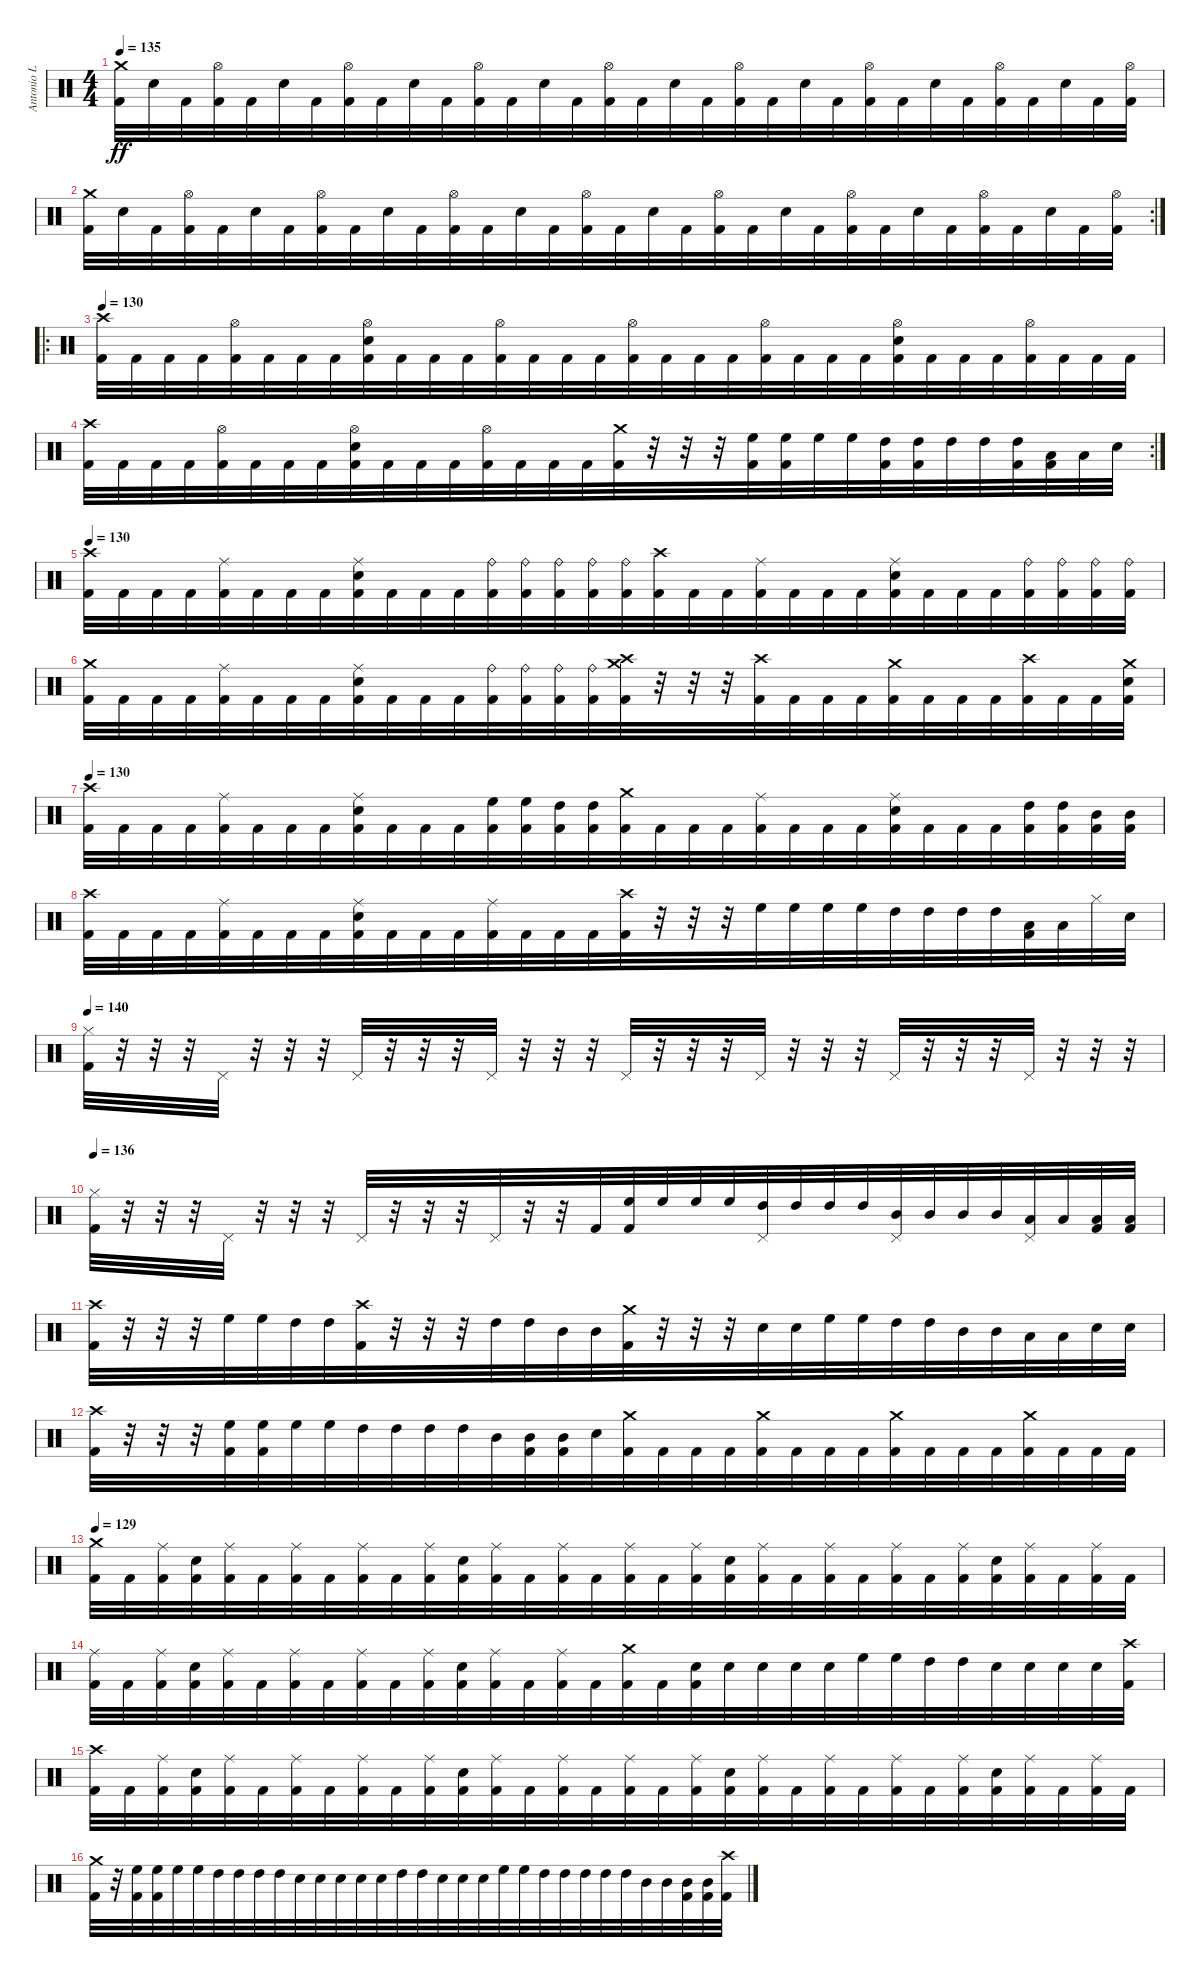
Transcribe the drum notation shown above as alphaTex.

\track ("Antonio L" "Antonio L") {instrument percussion}
\staff {score}
\articulation defaults
\ts (4 4)
\tempo 135
\clef neutral
\ks c
("Crash medium (hit)" "Kick (hit) 2").32{dy ff} "Electric Snare (hit)".32 "Kick (hit) 2".32 ("Hi-Hat (open)" "Kick (hit) 2").32 "Kick (hit) 2".32 "Electric Snare (hit)".32 "Kick (hit) 2".32 ("Hi-Hat (open)" "Kick (hit) 2").32{beam merge} "Kick (hit) 2".32 "Electric Snare (hit)".32 "Kick (hit) 2".32 ("Hi-Hat (open)" "Kick (hit) 2").32 "Kick (hit) 2".32 "Electric Snare (hit)".32 "Kick (hit) 2".32 ("Hi-Hat (open)" "Kick (hit) 2").32{beam merge} "Kick (hit) 2".32 "Electric Snare (hit)".32 "Kick (hit) 2".32 ("Hi-Hat (open)" "Kick (hit) 2").32 "Kick (hit) 2".32 "Electric Snare (hit)".32 "Kick (hit) 2".32 ("Hi-Hat (open)" "Kick (hit) 2").32{beam merge} "Kick (hit) 2".32 "Electric Snare (hit)".32 "Kick (hit) 2".32 ("Hi-Hat (open)" "Kick (hit) 2").32 "Kick (hit) 2".32 "Electric Snare (hit)".32 "Kick (hit) 2".32 ("Hi-Hat (open)" "Kick (hit) 2").32 |
\rc 2
("Crash medium (hit)" "Kick (hit) 2").32 "Electric Snare (hit)".32 "Kick (hit) 2".32 ("Hi-Hat (open)" "Kick (hit) 2").32 "Kick (hit) 2".32 "Electric Snare (hit)".32 "Kick (hit) 2".32 ("Hi-Hat (open)" "Kick (hit) 2").32{beam merge} "Kick (hit) 2".32 "Electric Snare (hit)".32 "Kick (hit) 2".32 ("Hi-Hat (open)" "Kick (hit) 2").32 "Kick (hit) 2".32 "Electric Snare (hit)".32 "Kick (hit) 2".32 ("Hi-Hat (open)" "Kick (hit) 2").32{beam merge} "Kick (hit) 2".32 "Electric Snare (hit)".32 "Kick (hit) 2".32 ("Hi-Hat (open)" "Kick (hit) 2").32 "Kick (hit) 2".32 "Electric Snare (hit)".32 "Kick (hit) 2".32 ("Hi-Hat (open)" "Kick (hit) 2").32{beam merge} "Kick (hit) 2".32 "Electric Snare (hit)".32 "Kick (hit) 2".32 ("Hi-Hat (open)" "Kick (hit) 2").32 "Kick (hit) 2".32 "Electric Snare (hit)".32 "Kick (hit) 2".32 ("Hi-Hat (open)" "Kick (hit) 2").32 |
\ro
\tempo 130
("Crash high (hit)" "Kick (hit) 2").32 "Kick (hit) 2".32 "Kick (hit) 2".32 "Kick (hit) 2".32 ("Hi-Hat (open)" "Kick (hit) 2").32 "Kick (hit) 2".32 "Kick (hit) 2".32 "Kick (hit) 2".32{beam merge} ("Hi-Hat (open)" "Electric Snare (hit)" "Kick (hit) 2").32 "Kick (hit) 2".32 "Kick (hit) 2".32 "Kick (hit) 2".32 ("Hi-Hat (open)" "Kick (hit) 2").32 "Kick (hit) 2".32 "Kick (hit) 2".32 "Kick (hit) 2".32{beam merge} ("Hi-Hat (open)" "Kick (hit) 2").32 "Kick (hit) 2".32 "Kick (hit) 2".32 "Kick (hit) 2".32 ("Hi-Hat (open)" "Kick (hit) 2").32 "Kick (hit) 2".32 "Kick (hit) 2".32 "Kick (hit) 2".32{beam merge} ("Hi-Hat (open)" "Electric Snare (hit)" "Kick (hit) 2").32 "Kick (hit) 2".32 "Kick (hit) 2".32 "Kick (hit) 2".32 ("Hi-Hat (open)" "Kick (hit) 2").32 "Kick (hit) 2".32 "Kick (hit) 2".32 "Kick (hit) 2".32 |
\rc 2
("Crash high (hit)" "Kick (hit) 2").32 "Kick (hit) 2".32 "Kick (hit) 2".32 "Kick (hit) 2".32 ("Hi-Hat (open)" "Kick (hit) 2").32 "Kick (hit) 2".32 "Kick (hit) 2".32 "Kick (hit) 2".32{beam merge} ("Hi-Hat (open)" "Electric Snare (hit)" "Kick (hit) 2").32 "Kick (hit) 2".32 "Kick (hit) 2".32 "Kick (hit) 2".32 ("Hi-Hat (open)" "Kick (hit) 2").32 "Kick (hit) 2".32 "Kick (hit) 2".32 "Kick (hit) 2".32{beam merge} ("Crash medium (hit)" "Kick (hit) 2").32 r.32 r.32 r.32 ("High Floor Tom (hit)" "Kick (hit) 2").32 ("High Floor Tom (hit)" "Kick (hit) 2").32 "High Floor Tom (hit)".32 "High Floor Tom (hit)".32{beam merge} ("High Tom (hit)" "Kick (hit) 2").32 ("High Tom (hit)" "Kick (hit) 2").32 "High Tom (hit)".32 "High Tom (hit)".32 ("High Tom (hit)" "Kick (hit) 2").32 ("Low Tom (hit)" "Kick (hit) 2").32 "Low Tom (hit)".32 "Electric Snare (hit)".32 |
\tempo 130
("Crash high (hit)" "Kick (hit) 2").32 "Kick (hit) 2".32 "Kick (hit) 2".32 "Kick (hit) 2".32 ("Ride (middle)" "Kick (hit) 2").32 "Kick (hit) 2".32 "Kick (hit) 2".32 "Kick (hit) 2".32{beam merge} ("Ride (middle)" "Electric Snare (hit)" "Kick (hit) 2").32 "Kick (hit) 2".32 "Kick (hit) 2".32 "Kick (hit) 2".32 ("Ride (bell)" "Kick (hit) 2").32 ("Ride (bell)" "Kick (hit) 2").32 ("Ride (bell)" "Kick (hit) 2").32 ("Ride (bell)" "Kick (hit) 2").32{beam merge} ("Ride (bell)" "Kick (hit) 2").32 ("Crash high (hit)" "Kick (hit) 2").32 "Kick (hit) 2".32 "Kick (hit) 2".32 ("Ride (middle)" "Kick (hit) 2").32 "Kick (hit) 2".32 "Kick (hit) 2".32 "Kick (hit) 2".32{beam merge} ("Ride (middle)" "Electric Snare (hit)" "Kick (hit) 2").32 "Kick (hit) 2".32 "Kick (hit) 2".32 "Kick (hit) 2".32 ("Ride (bell)" "Kick (hit) 2").32 ("Ride (bell)" "Kick (hit) 2").32 ("Ride (bell)" "Kick (hit) 2").32 ("Ride (bell)" "Kick (hit) 2").32 |
("Crash medium (hit)" "Kick (hit) 2").32 "Kick (hit) 2".32 "Kick (hit) 2".32 "Kick (hit) 2".32 ("Ride (middle)" "Kick (hit) 2").32 "Kick (hit) 2".32 "Kick (hit) 2".32 "Kick (hit) 2".32{beam merge} ("Ride (middle)" "Electric Snare (hit)" "Kick (hit) 2").32 "Kick (hit) 2".32 "Kick (hit) 2".32 "Kick (hit) 2".32 ("Ride (bell)" "Kick (hit) 2").32 ("Ride (bell)" "Kick (hit) 2").32 ("Ride (bell)" "Kick (hit) 2").32 ("Ride (bell)" "Kick (hit) 2").32{beam merge} ("Crash medium (hit)" "Crash high (hit)" "Kick (hit) 2").32 r.32 r.32 r.32 ("Crash high (hit)" "Kick (hit) 2").32 "Kick (hit) 2".32 "Kick (hit) 2".32 "Kick (hit) 2".32{beam merge} ("Crash medium (hit)" "Kick (hit) 2").32 "Kick (hit) 2".32 "Kick (hit) 2".32 "Kick (hit) 2".32 ("Crash high (hit)" "Kick (hit) 2").32 "Kick (hit) 2".32 "Kick (hit) 2".32 ("Crash medium (hit)" "Electric Snare (hit)" "Kick (hit) 2").32 |
\tempo 130
("Crash high (hit)" "Kick (hit) 2").32 "Kick (hit) 2".32 "Kick (hit) 2".32 "Kick (hit) 2".32 ("Ride (middle)" "Kick (hit) 2").32 "Kick (hit) 2".32 "Kick (hit) 2".32 "Kick (hit) 2".32{beam merge} ("Ride (middle)" "Electric Snare (hit)" "Kick (hit) 2").32 "Kick (hit) 2".32 "Kick (hit) 2".32 "Kick (hit) 2".32 ("High Floor Tom (hit)" "Kick (hit) 2").32 ("High Floor Tom (hit)" "Kick (hit) 2").32 ("High Tom (hit)" "Kick (hit) 2").32 ("High Tom (hit)" "Kick (hit) 2").32{beam merge} ("Crash medium (hit)" "Kick (hit) 2").32 "Kick (hit) 2".32 "Kick (hit) 2".32 "Kick (hit) 2".32 ("Ride (middle)" "Kick (hit) 2").32 "Kick (hit) 2".32 "Kick (hit) 2".32 "Kick (hit) 2".32{beam merge} ("Ride (middle)" "Electric Snare (hit)" "Kick (hit) 2").32 "Kick (hit) 2".32 "Kick (hit) 2".32 "Kick (hit) 2".32 ("High Tom (hit)" "Kick (hit) 2").32 ("High Tom (hit)" "Kick (hit) 2").32 ("Mid Tom (hit)" "Kick (hit) 2").32 ("Mid Tom (hit)" "Kick (hit) 2").32 |
("Crash high (hit)" "Kick (hit) 2").32 "Kick (hit) 2".32 "Kick (hit) 2".32 "Kick (hit) 2".32 ("Ride (middle)" "Kick (hit) 2").32 "Kick (hit) 2".32 "Kick (hit) 2".32 "Kick (hit) 2".32{beam merge} ("Ride (middle)" "Electric Snare (hit)" "Kick (hit) 2").32 "Kick (hit) 2".32 "Kick (hit) 2".32 "Kick (hit) 2".32 ("Ride (middle)" "Kick (hit) 2").32 "Kick (hit) 2".32 "Kick (hit) 2".32 "Kick (hit) 2".32{beam merge} ("Crash high (hit)" "Kick (hit) 2").32 r.32 r.32 r.32 "High Floor Tom (hit)".32 "High Floor Tom (hit)".32 "High Floor Tom (hit)".32 "High Floor Tom (hit)".32{beam merge} "High Tom (hit)".32 "High Tom (hit)".32 "High Tom (hit)".32 "High Tom (hit)".32 ("Low Tom (hit)" "Kick (hit) 2").32 "Low Tom (hit)".32 "Hi-Hat (closed)".32 "Electric Snare (hit)".32 |
\tempo 140
("Hi-Hat (closed)" "Kick (hit) 2").32 r.32 r.32 r.32 "Pedal Hi-Hat (hit)".32 r.32 r.32 r.32 "Pedal Hi-Hat (hit)".32 r.32 r.32 r.32 "Pedal Hi-Hat (hit)".32 r.32 r.32 r.32 "Pedal Hi-Hat (hit)".32 r.32 r.32 r.32 "Pedal Hi-Hat (hit)".32 r.32 r.32 r.32 "Pedal Hi-Hat (hit)".32 r.32 r.32 r.32 "Pedal Hi-Hat (hit)".32 r.32 r.32 r.32 |
\tempo 136
("Hi-Hat (closed)" "Kick (hit) 2").32 r.32 r.32 r.32 "Pedal Hi-Hat (hit)".32 r.32 r.32 r.32 "Pedal Hi-Hat (hit)".32 r.32 r.32 r.32 "Pedal Hi-Hat (hit)".32 r.32 r.32 "Kick (hit) 2".32{beam merge} ("High Floor Tom (hit)" "Kick (hit) 2").32 "High Floor Tom (hit)".32 "High Floor Tom (hit)".32 "High Floor Tom (hit)".32 ("High Tom (hit)" "Pedal Hi-Hat (hit)").32 "High Tom (hit)".32 "High Tom (hit)".32 "High Tom (hit)".32{beam merge} ("Mid Tom (hit)" "Pedal Hi-Hat (hit)").32 "Mid Tom (hit)".32 "Mid Tom (hit)".32 "Mid Tom (hit)".32 ("Low Tom (hit)" "Pedal Hi-Hat (hit)").32 "Low Tom (hit)".32 ("Low Tom (hit)" "Kick (hit) 2").32 ("Low Tom (hit)" "Kick (hit) 2").32 |
("Crash high (hit)" "Kick (hit) 2").32 r.32 r.32 r.32 "High Floor Tom (hit)".32 "High Floor Tom (hit)".32 "High Tom (hit)".32 "High Tom (hit)".32{beam merge} ("Crash high (hit)" "Kick (hit) 2").32 r.32 r.32 r.32 "High Tom (hit)".32 "High Tom (hit)".32 "Mid Tom (hit)".32 "Mid Tom (hit)".32{beam merge} ("Crash medium (hit)" "Kick (hit) 2").32 r.32 r.32 r.32 "Electric Snare (hit)".32 "Electric Snare (hit)".32 "High Floor Tom (hit)".32 "High Floor Tom (hit)".32{beam merge} "High Tom (hit)".32 "High Tom (hit)".32 "Mid Tom (hit)".32 "Mid Tom (hit)".32 "Low Tom (hit)".32 "Low Tom (hit)".32 "Electric Snare (hit)".32 "Electric Snare (hit)".32 |
("Crash high (hit)" "Kick (hit) 2").32 r.32 r.32 r.32 ("High Floor Tom (hit)" "Kick (hit) 2").32 ("High Floor Tom (hit)" "Kick (hit) 2").32 "High Floor Tom (hit)".32 "High Floor Tom (hit)".32{beam merge} "High Tom (hit)".32 "High Tom (hit)".32 "High Tom (hit)".32 "High Tom (hit)".32 "Mid Tom (hit)".32 ("Mid Tom (hit)" "Kick (hit) 2").32 ("Mid Tom (hit)" "Kick (hit) 2").32 "Electric Snare (hit)".32{beam merge} ("Crash medium (hit)" "Kick (hit) 2").32 "Kick (hit) 2".32 "Kick (hit) 2".32 "Kick (hit) 2".32 ("Crash medium (hit)" "Kick (hit) 2").32 "Kick (hit) 2".32 "Kick (hit) 2".32 "Kick (hit) 2".32{beam merge} ("Crash medium (hit)" "Kick (hit) 2").32 "Kick (hit) 2".32 "Kick (hit) 2".32 "Kick (hit) 2".32 ("Crash medium (hit)" "Kick (hit) 2").32 "Kick (hit) 2".32 "Kick (hit) 2".32 "Kick (hit) 2".32 |
\tempo 129
("Crash medium (hit)" "Kick (hit) 2").32 "Kick (hit) 2".32 ("Ride (middle)" "Kick (hit) 2").32 ("Kick (hit) 2" "Electric Snare (hit)").32 ("Ride (middle)" "Kick (hit) 2").32 "Kick (hit) 2".32 ("Ride (middle)" "Kick (hit) 2").32 "Kick (hit) 2".32{beam merge} ("Ride (middle)" "Kick (hit) 2").32 "Kick (hit) 2".32 ("Ride (middle)" "Kick (hit) 2").32 ("Kick (hit) 2" "Electric Snare (hit)").32 ("Ride (middle)" "Kick (hit) 2").32 "Kick (hit) 2".32 ("Ride (middle)" "Kick (hit) 2").32 "Kick (hit) 2".32{beam merge} ("Ride (middle)" "Kick (hit) 2").32 "Kick (hit) 2".32 ("Ride (middle)" "Kick (hit) 2").32 ("Kick (hit) 2" "Electric Snare (hit)").32 ("Ride (middle)" "Kick (hit) 2").32 "Kick (hit) 2".32 ("Ride (middle)" "Kick (hit) 2").32 "Kick (hit) 2".32{beam merge} ("Ride (middle)" "Kick (hit) 2").32 "Kick (hit) 2".32 ("Ride (middle)" "Kick (hit) 2").32 ("Kick (hit) 2" "Electric Snare (hit)").32 ("Ride (middle)" "Kick (hit) 2").32 "Kick (hit) 2".32 ("Ride (middle)" "Kick (hit) 2").32 "Kick (hit) 2".32 |
("Ride (middle)" "Kick (hit) 2").32 "Kick (hit) 2".32 ("Ride (middle)" "Kick (hit) 2").32 ("Kick (hit) 2" "Electric Snare (hit)").32 ("Ride (middle)" "Kick (hit) 2").32 "Kick (hit) 2".32 ("Ride (middle)" "Kick (hit) 2").32 "Kick (hit) 2".32{beam merge} ("Ride (middle)" "Kick (hit) 2").32 "Kick (hit) 2".32 ("Ride (middle)" "Kick (hit) 2").32 ("Kick (hit) 2" "Electric Snare (hit)").32 ("Ride (middle)" "Kick (hit) 2").32 "Kick (hit) 2".32 ("Ride (middle)" "Kick (hit) 2").32 "Kick (hit) 2".32{beam merge} ("Crash medium (hit)" "Kick (hit) 2").32 "Kick (hit) 2".32 ("Electric Snare (hit)" "Kick (hit) 2").32 "Electric Snare (hit)".32 "Electric Snare (hit)".32 "Electric Snare (hit)".32 "Electric Snare (hit)".32 "High Floor Tom (hit)".32{beam merge} "High Floor Tom (hit)".32 "High Tom (hit)".32 "High Tom (hit)".32 "Electric Snare (hit)".32 "Electric Snare (hit)".32 "Electric Snare (hit)".32 "Electric Snare (hit)".32 ("Crash high (hit)" "Kick (hit) 2").32 |
("Crash high (hit)" "Kick (hit) 2").32 "Kick (hit) 2".32 ("Ride (middle)" "Kick (hit) 2").32 ("Kick (hit) 2" "Electric Snare (hit)").32 ("Ride (middle)" "Kick (hit) 2").32 "Kick (hit) 2".32 ("Ride (middle)" "Kick (hit) 2").32 "Kick (hit) 2".32{beam merge} ("Ride (middle)" "Kick (hit) 2").32 "Kick (hit) 2".32 ("Ride (middle)" "Kick (hit) 2").32 ("Kick (hit) 2" "Electric Snare (hit)").32 ("Ride (middle)" "Kick (hit) 2").32 "Kick (hit) 2".32 ("Ride (middle)" "Kick (hit) 2").32 "Kick (hit) 2".32{beam merge} ("Ride (middle)" "Kick (hit) 2").32 "Kick (hit) 2".32 ("Ride (middle)" "Kick (hit) 2").32 ("Kick (hit) 2" "Electric Snare (hit)").32 ("Ride (middle)" "Kick (hit) 2").32 "Kick (hit) 2".32 ("Ride (middle)" "Kick (hit) 2").32 "Kick (hit) 2".32{beam merge} ("Ride (middle)" "Kick (hit) 2").32 "Kick (hit) 2".32 ("Ride (middle)" "Kick (hit) 2").32 ("Kick (hit) 2" "Electric Snare (hit)").32 ("Ride (middle)" "Kick (hit) 2").32 "Kick (hit) 2".32 ("Ride (middle)" "Kick (hit) 2").32 "Kick (hit) 2".32 |
("Crash medium (hit)" "Kick (hit) 2").32 r.32 ("High Floor Tom (hit)" "Kick (hit) 2").32 ("High Floor Tom (hit)" "Kick (hit) 2").32 "High Floor Tom (hit)".32 "High Floor Tom (hit)".32 "High Tom (hit)".32 "High Tom (hit)".32{beam merge} "High Tom (hit)".32 "High Tom (hit)".32 "Electric Snare (hit)".32 "Electric Snare (hit)".32 "Electric Snare (hit)".32 "Electric Snare (hit)".32 "Electric Snare (hit)".32 "High Tom (hit)".32{beam merge} "High Tom (hit)".32 "Electric Snare (hit)".32 "Electric Snare (hit)".32 "Electric Snare (hit)".32 "High Floor Tom (hit)".32 "High Floor Tom (hit)".32 "High Tom (hit)".32 "High Tom (hit)".32{beam merge} "High Tom (hit)".32 "High Tom (hit)".32 "High Tom (hit)".32 "Mid Tom (hit)".32 "Mid Tom (hit)".32 ("Mid Tom (hit)" "Kick (hit) 2").32 ("Mid Tom (hit)" "Kick (hit) 2").32 ("Crash high (hit)" "Kick (hit) 2").32
